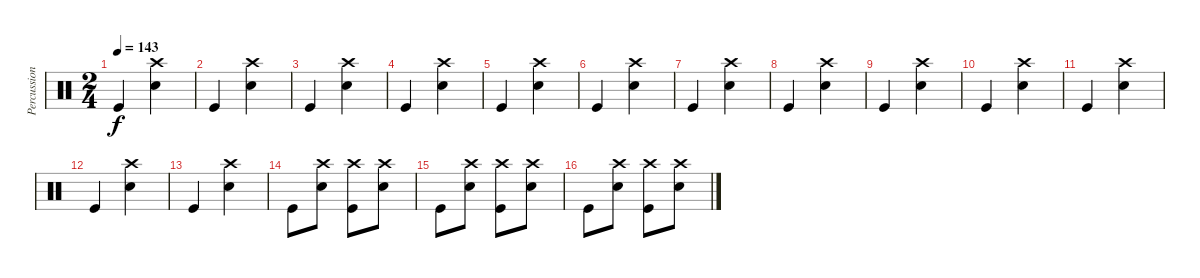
\track ("Percussion" "Percussion") {instrument percussion}
\staff {score}
\articulation defaults
\ts (2 4)
\tempo 143
\clef neutral
\ks c "Kick (hit)".4{dy f}
("Snare (hit) 2" "Crash high (hit)").4 |
"Kick (hit)".4 ("Snare (hit) 2" "Crash high (hit)").4 |
"Kick (hit)".4 ("Snare (hit) 2" "Crash high (hit)").4 |
"Kick (hit)".4 ("Snare (hit) 2" "Crash high (hit)").4 |
"Kick (hit)".4 ("Snare (hit) 2" "Crash high (hit)").4 |
"Kick (hit)".4 ("Snare (hit) 2" "Crash high (hit)").4 |
"Kick (hit)".4 ("Snare (hit) 2" "Crash high (hit)").4 |
"Kick (hit)".4 ("Snare (hit) 2" "Crash high (hit)").4 |
"Kick (hit)".4 ("Snare (hit) 2" "Crash high (hit)").4 |
"Kick (hit)".4 ("Snare (hit) 2" "Crash high (hit)").4 |
"Kick (hit)".4 ("Snare (hit) 2" "Crash high (hit)").4 |
"Kick (hit)".4 ("Snare (hit) 2" "Crash high (hit)").4 |
"Kick (hit)".4 ("Snare (hit) 2" "Crash high (hit)").4 |
"Kick (hit)".8 ("Snare (hit) 2" "Crash high (hit)").8 ("Kick (hit)" "Crash high (hit)").8 ("Snare (hit) 2" "Crash high (hit)").8 |
"Kick (hit)".8 ("Snare (hit) 2" "Crash high (hit)").8 ("Kick (hit)" "Crash high (hit)").8 ("Snare (hit) 2" "Crash high (hit)").8 |
"Kick (hit)".8 ("Snare (hit) 2" "Crash high (hit)").8 ("Kick (hit)" "Crash high (hit)").8 ("Snare (hit) 2" "Crash high (hit)").8
